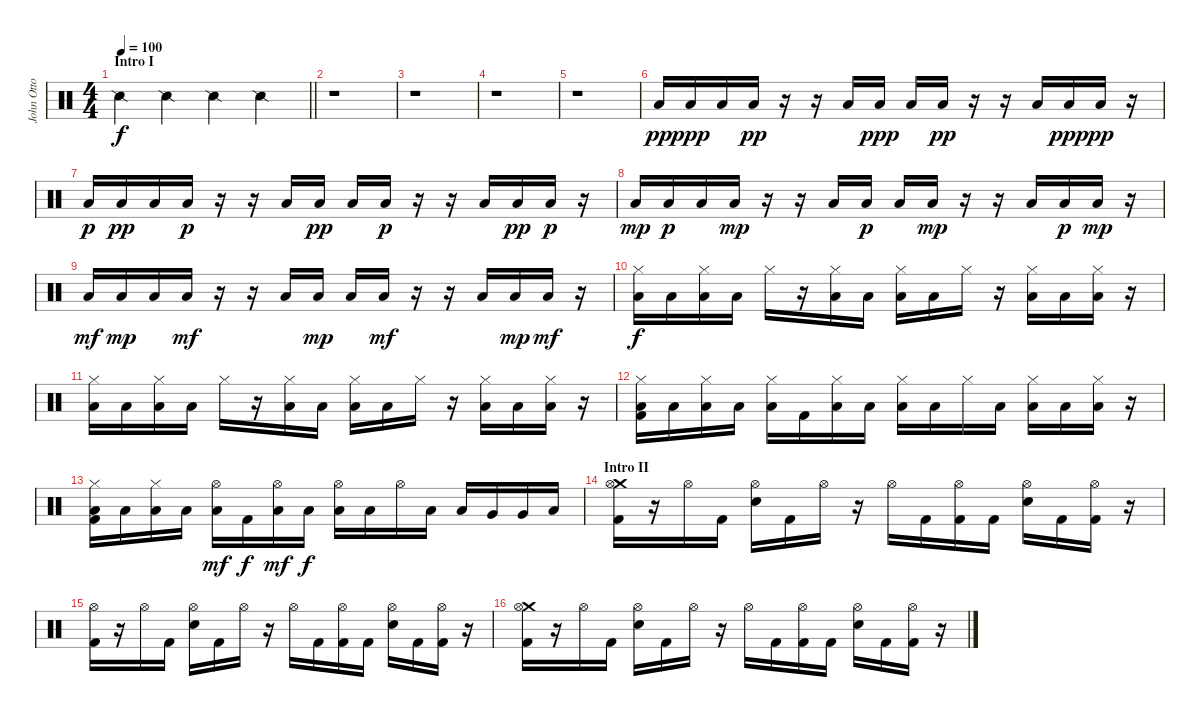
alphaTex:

\track ("John Otto - Drums" "John Otto ") {instrument percussion}
\staff {score}
\articulation defaults
\ts (4 4)
\section ("" "Intro I")
\tempo 100
\clef neutral
\barLineRight lightlight
\ks c "Snare (side stick) 2".4{dy f} "Snare (side stick) 2".4 "Snare (side stick) 2".4 "Snare (side stick) 2".4
|
r.1 |
r.1 |
r.1 |
r.1 |
"Low Tom (hit)".16{dy pp} "Low Floor Tom (hit)".16{dy ppp} "Low Floor Tom (hit)".16 "Low Tom (hit)".16{dy pp} r.16 r.16 "Low Tom (hit)".16 "Low Floor Tom (hit)".16{dy ppp} "Low Floor Tom (hit)".16 "Low Tom (hit)".16{dy pp} r.16 r.16 "Low Tom (hit)".16 "Low Floor Tom (hit)".16{dy ppp} "Low Tom (hit)".16{dy pp} r.16 |
"Low Tom (hit)".16{dy p} "Low Floor Tom (hit)".16{dy pp} "Low Floor Tom (hit)".16 "Low Tom (hit)".16{dy p} r.16 r.16 "Low Tom (hit)".16 "Low Floor Tom (hit)".16{dy pp} "Low Floor Tom (hit)".16 "Low Tom (hit)".16{dy p} r.16 r.16 "Low Tom (hit)".16 "Low Floor Tom (hit)".16{dy pp} "Low Tom (hit)".16{dy p} r.16 |
"Low Tom (hit)".16{dy mp} "Low Floor Tom (hit)".16{dy p} "Low Floor Tom (hit)".16 "Low Tom (hit)".16{dy mp} r.16 r.16 "Low Tom (hit)".16 "Low Floor Tom (hit)".16{dy p} "Low Floor Tom (hit)".16 "Low Tom (hit)".16{dy mp} r.16 r.16 "Low Tom (hit)".16 "Low Floor Tom (hit)".16{dy p} "Low Tom (hit)".16{dy mp} r.16 |
"Low Tom (hit)".16{dy mf} "Low Floor Tom (hit)".16{dy mp} "Low Floor Tom (hit)".16 "Low Tom (hit)".16{dy mf} r.16 r.16 "Low Tom (hit)".16 "Low Floor Tom (hit)".16{dy mp} "Low Floor Tom (hit)".16 "Low Tom (hit)".16{dy mf} r.16 r.16 "Low Tom (hit)".16 "Low Floor Tom (hit)".16{dy mp} "Low Tom (hit)".16{dy mf} r.16 |
("Hi-Hat (closed)" "Low Tom (hit)").16{dy f} "Low Floor Tom (hit)".16 ("Hi-Hat (closed)" "Low Floor Tom (hit)").16 "Low Tom (hit)".16 "Hi-Hat (closed)".16 r.16 ("Hi-Hat (closed)" "Low Tom (hit)").16 "Low Floor Tom (hit)".16 ("Hi-Hat (closed)" "Low Floor Tom (hit)").16 "Low Tom (hit)".16 "Hi-Hat (closed)".16 r.16 ("Hi-Hat (closed)" "Low Tom (hit)").16 "Low Floor Tom (hit)".16 ("Hi-Hat (closed)" "Low Tom (hit)").16 r.16 |
("Hi-Hat (closed)" "Low Tom (hit)").16 "Low Floor Tom (hit)".16 ("Hi-Hat (closed)" "Low Floor Tom (hit)").16 "Low Tom (hit)".16 "Hi-Hat (closed)".16 r.16 ("Hi-Hat (closed)" "Low Tom (hit)").16 "Low Floor Tom (hit)".16 ("Hi-Hat (closed)" "Low Floor Tom (hit)").16 "Low Tom (hit)".16 "Hi-Hat (closed)".16 r.16 ("Hi-Hat (closed)" "Low Tom (hit)").16 "Low Floor Tom (hit)".16 ("Hi-Hat (closed)" "Low Tom (hit)").16 r.16 |
("Hi-Hat (closed)" "Low Tom (hit)" "Kick (hit) 2").16 "Low Floor Tom (hit)".16 ("Hi-Hat (closed)" "Low Floor Tom (hit)").16 "Low Tom (hit)".16 ("Hi-Hat (closed)" "Low Floor Tom (hit)").16 "Kick (hit) 2".16 ("Hi-Hat (closed)" "Low Tom (hit)").16 "Low Floor Tom (hit)".16 ("Hi-Hat (closed)" "Low Floor Tom (hit)").16 "Low Tom (hit)".16 "Hi-Hat (closed)".16 "Low Floor Tom (hit)".16 ("Hi-Hat (closed)" "Low Tom (hit)").16 "Low Floor Tom (hit)".16 ("Hi-Hat (closed)" "Low Tom (hit)").16 r.16 |
("Hi-Hat (closed)" "Low Tom (hit)" "Kick (hit) 2").16 "Low Floor Tom (hit)".16 ("Hi-Hat (closed)" "Low Floor Tom (hit)").16 "Low Tom (hit)".16 ("Hi-Hat (open)" "Low Floor Tom (hit)").16{dy mf} "Kick (hit) 2".16{dy f} ("Hi-Hat (open)" "Low Tom (hit)").16{dy mf} "Low Floor Tom (hit)".16{dy f} ("Hi-Hat (open)" "Low Floor Tom (hit)").16 "Low Tom (hit)".16 "Hi-Hat (open)".16 "Low Floor Tom (hit)".16 "Low Tom (hit)".16 "Very Low Tom (hit)".16 "Very Low Tom (hit)".16 "Low Tom (hit)".16 |
\section ("" "Intro II")
("Crash medium (hit)" "Hi-Hat (open)" "Kick (hit) 2").16 r.16 "Hi-Hat (open)".16 "Kick (hit) 2".16 ("Hi-Hat (open)" "Snare (hit) 2").16 "Kick (hit) 2".16 "Hi-Hat (open)".16 r.16 "Hi-Hat (open)".16 "Kick (hit) 2".16 ("Hi-Hat (open)" "Kick (hit) 2").16 "Kick (hit) 2".16 ("Hi-Hat (open)" "Snare (hit) 2").16 "Kick (hit) 2".16 ("Hi-Hat (open)" "Kick (hit) 2").16 r.16 |
("Hi-Hat (open)" "Kick (hit) 2").16 r.16 "Hi-Hat (open)".16 "Kick (hit) 2".16 ("Hi-Hat (open)" "Snare (hit) 2").16 "Kick (hit) 2".16 "Hi-Hat (open)".16 r.16 "Hi-Hat (open)".16 "Kick (hit) 2".16 ("Hi-Hat (open)" "Kick (hit) 2").16 "Kick (hit) 2".16 ("Hi-Hat (open)" "Snare (hit) 2").16 "Kick (hit) 2".16 ("Hi-Hat (open)" "Kick (hit) 2").16 r.16 |
("Crash medium (hit)" "Hi-Hat (open)" "Kick (hit) 2").16 r.16 "Hi-Hat (open)".16 "Kick (hit) 2".16 ("Hi-Hat (open)" "Snare (hit) 2").16 "Kick (hit) 2".16 "Hi-Hat (open)".16 r.16 "Hi-Hat (open)".16 "Kick (hit) 2".16 ("Hi-Hat (open)" "Kick (hit) 2").16 "Kick (hit) 2".16 ("Hi-Hat (open)" "Snare (hit) 2").16 "Kick (hit) 2".16 ("Hi-Hat (open)" "Kick (hit) 2").16 r.16
